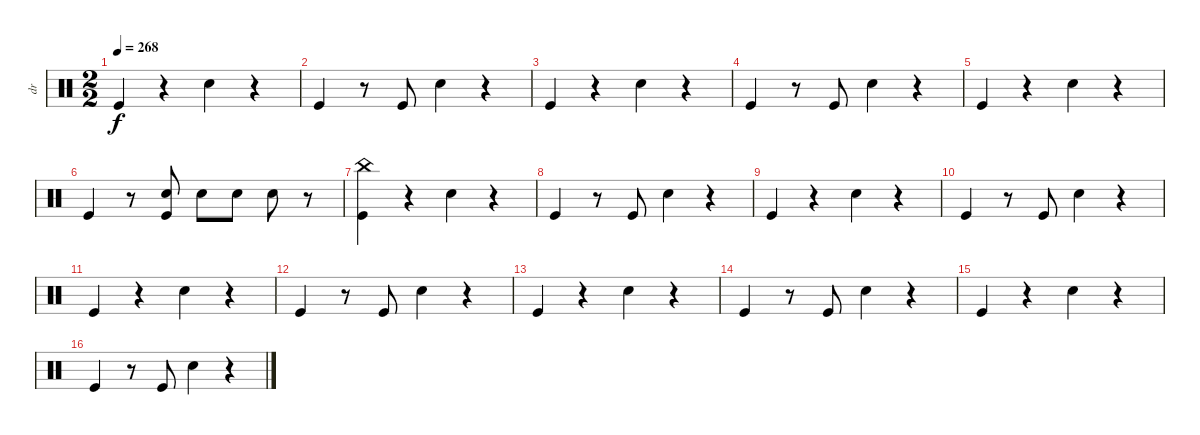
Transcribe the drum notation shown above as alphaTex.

\track ("dr" "dr") {instrument percussion}
\staff {score}
\articulation defaults
\ts (2 2)
\tempo 268
\clef neutral
\ks c "Kick (hit)".4{dy f}
r.4 "Snare (hit) 2".4 r.4 |
"Kick (hit)".4 r.8 "Kick (hit)".8 "Snare (hit) 2".4 r.4 |
"Kick (hit)".4 r.4 "Snare (hit) 2".4 r.4 |
"Kick (hit)".4 r.8 "Kick (hit)".8 "Snare (hit) 2".4 r.4 |
"Kick (hit)".4 r.4 "Snare (hit) 2".4 r.4 |
"Kick (hit)".4 r.8 ("Kick (hit)" "Electric Snare (hit)").8 "Electric Snare (hit)".8 "Electric Snare (hit)".8 "Snare (hit) 2".8 r.8 |
("China (hit)" "Kick (hit)").4 r.4 "Snare (hit) 2".4 r.4 |
"Kick (hit)".4 r.8 "Kick (hit)".8 "Snare (hit) 2".4 r.4 |
"Kick (hit)".4 r.4 "Snare (hit) 2".4 r.4 |
"Kick (hit)".4 r.8 "Kick (hit)".8 "Snare (hit) 2".4 r.4 |
"Kick (hit)".4 r.4 "Snare (hit) 2".4 r.4 |
"Kick (hit)".4 r.8 "Kick (hit)".8 "Snare (hit) 2".4 r.4 |
"Kick (hit)".4 r.4 "Snare (hit) 2".4 r.4 |
"Kick (hit)".4 r.8 "Kick (hit)".8 "Snare (hit) 2".4 r.4 |
"Kick (hit)".4 r.4 "Snare (hit) 2".4 r.4 |
"Kick (hit)".4 r.8 "Kick (hit)".8 "Snare (hit) 2".4 r.4
